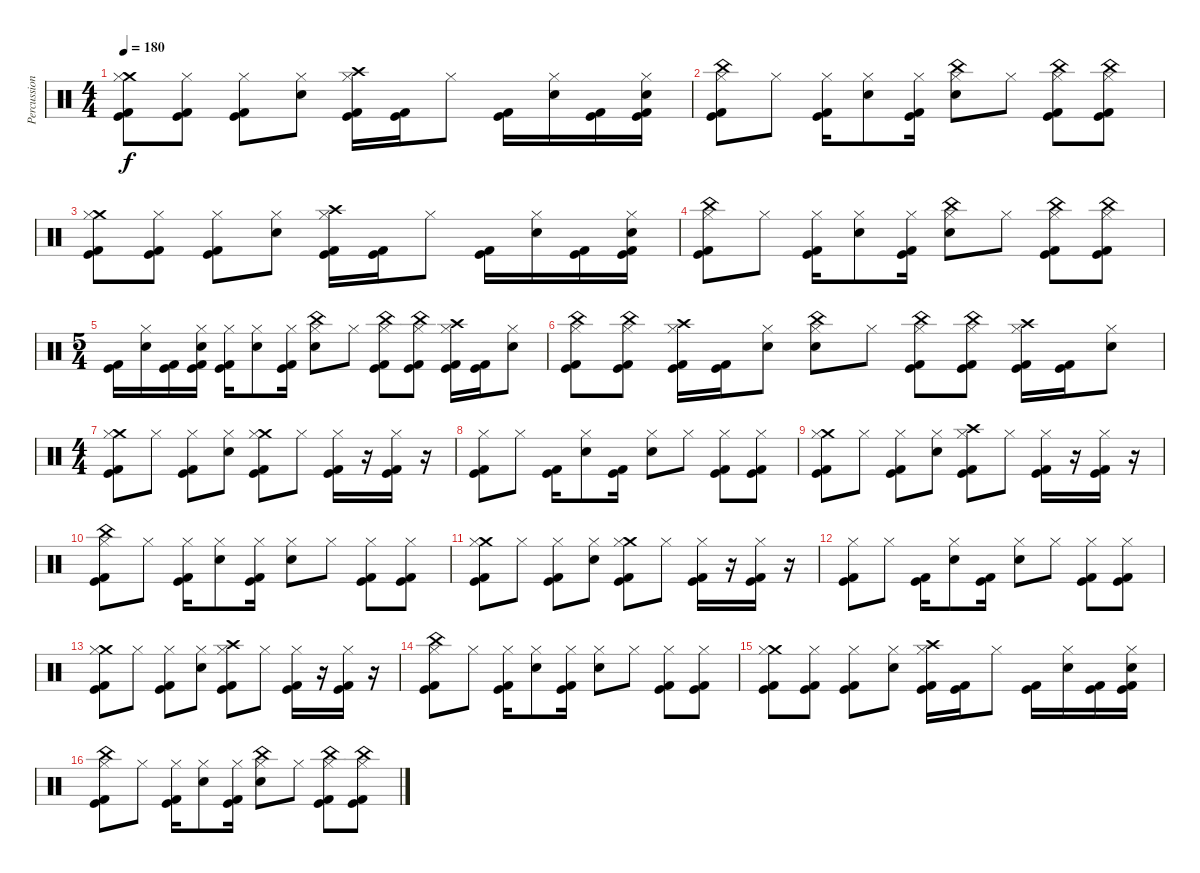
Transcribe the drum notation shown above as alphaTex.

\track ("Percussion" "Percussion") {instrument percussion}
\staff {score}
\articulation defaults
\ts (4 4)
\tempo 180
\clef neutral
\ks c
("Crash medium (hit)" "Hi-Hat (closed)" "Kick (hit)" "Kick (hit) 2").8{dy f} ("Hi-Hat (closed)" "Kick (hit)" "Kick (hit) 2").8 ("Hi-Hat (closed)" "Kick (hit)" "Kick (hit) 2").8 ("Hi-Hat (closed)" "Electric Snare (hit)").8 ("Crash high (hit)" "Hi-Hat (closed)" "Kick (hit)" "Kick (hit) 2").16 ("Kick (hit)" "Kick (hit) 2").16 "Hi-Hat (closed)".8 ("Kick (hit)" "Kick (hit) 2").16 ("Hi-Hat (closed)" "Electric Snare (hit)").16 ("Kick (hit)" "Kick (hit) 2").16 ("Hi-Hat (closed)" "Electric Snare (hit)" "Kick (hit)" "Kick (hit) 2").16 |
("China (hit)" "Hi-Hat (closed)" "Kick (hit)" "Kick (hit) 2").8 "Hi-Hat (closed)".8 ("Hi-Hat (closed)" "Kick (hit)" "Kick (hit) 2").16 ("Hi-Hat (closed)" "Electric Snare (hit)").8 ("Hi-Hat (closed)" "Kick (hit)" "Kick (hit) 2").16 ("China (hit)" "Hi-Hat (closed)" "Electric Snare (hit)").8 "Hi-Hat (closed)".8 ("China (hit)" "Hi-Hat (closed)" "Kick (hit)" "Kick (hit) 2").8 ("China (hit)" "Hi-Hat (closed)" "Kick (hit)" "Kick (hit) 2").8 |
("Crash medium (hit)" "Hi-Hat (closed)" "Kick (hit)" "Kick (hit) 2").8 ("Hi-Hat (closed)" "Kick (hit)" "Kick (hit) 2").8 ("Hi-Hat (closed)" "Kick (hit)" "Kick (hit) 2").8 ("Hi-Hat (closed)" "Electric Snare (hit)").8 ("Crash high (hit)" "Hi-Hat (closed)" "Kick (hit)" "Kick (hit) 2").16 ("Kick (hit)" "Kick (hit) 2").16 "Hi-Hat (closed)".8 ("Kick (hit)" "Kick (hit) 2").16 ("Hi-Hat (closed)" "Electric Snare (hit)").16 ("Kick (hit)" "Kick (hit) 2").16 ("Hi-Hat (closed)" "Electric Snare (hit)" "Kick (hit)" "Kick (hit) 2").16 |
("China (hit)" "Hi-Hat (closed)" "Kick (hit)" "Kick (hit) 2").8 "Hi-Hat (closed)".8 ("Hi-Hat (closed)" "Kick (hit)" "Kick (hit) 2").16 ("Hi-Hat (closed)" "Electric Snare (hit)").8 ("Hi-Hat (closed)" "Kick (hit)" "Kick (hit) 2").16 ("China (hit)" "Hi-Hat (closed)" "Electric Snare (hit)").8 "Hi-Hat (closed)".8 ("China (hit)" "Hi-Hat (closed)" "Kick (hit)" "Kick (hit) 2").8 ("China (hit)" "Hi-Hat (closed)" "Kick (hit)" "Kick (hit) 2").8 |
\ts (5 4)
("Kick (hit)" "Kick (hit) 2").16 ("Hi-Hat (closed)" "Electric Snare (hit)").16 ("Kick (hit)" "Kick (hit) 2").16 ("Hi-Hat (closed)" "Electric Snare (hit)" "Kick (hit)" "Kick (hit) 2").16 ("Hi-Hat (closed)" "Kick (hit)" "Kick (hit) 2").16 ("Hi-Hat (closed)" "Electric Snare (hit)").8 ("Hi-Hat (closed)" "Kick (hit)" "Kick (hit) 2").16 ("China (hit)" "Hi-Hat (closed)" "Electric Snare (hit)").8 "Hi-Hat (closed)".8 ("China (hit)" "Hi-Hat (closed)" "Kick (hit)" "Kick (hit) 2").8 ("China (hit)" "Hi-Hat (closed)" "Kick (hit)" "Kick (hit) 2").8 ("Crash high (hit)" "Hi-Hat (closed)" "Kick (hit)" "Kick (hit) 2").16 ("Kick (hit)" "Kick (hit) 2").16 ("Hi-Hat (closed)" "Electric Snare (hit)").8 |
("China (hit)" "Hi-Hat (closed)" "Kick (hit)" "Kick (hit) 2").8 ("China (hit)" "Hi-Hat (closed)" "Kick (hit)" "Kick (hit) 2").8 ("Crash high (hit)" "Hi-Hat (closed)" "Kick (hit)" "Kick (hit) 2").16 ("Kick (hit)" "Kick (hit) 2").16 ("Hi-Hat (closed)" "Electric Snare (hit)").8 ("China (hit)" "Hi-Hat (closed)" "Electric Snare (hit)").8 "Hi-Hat (closed)".8 ("China (hit)" "Hi-Hat (closed)" "Kick (hit)" "Kick (hit) 2").8 ("China (hit)" "Hi-Hat (closed)" "Kick (hit)" "Kick (hit) 2").8 ("Crash high (hit)" "Hi-Hat (closed)" "Kick (hit)" "Kick (hit) 2").16 ("Kick (hit)" "Kick (hit) 2").16 ("Hi-Hat (closed)" "Electric Snare (hit)").8 |
\ts (4 4)
("Crash medium (hit)" "Hi-Hat (closed)" "Kick (hit)" "Kick (hit) 2").8 "Hi-Hat (closed)".8 ("Hi-Hat (closed)" "Kick (hit)" "Kick (hit) 2").8 ("Hi-Hat (closed)" "Electric Snare (hit)").8 ("Crash medium (hit)" "Hi-Hat (closed)" "Kick (hit)" "Kick (hit) 2").8 "Hi-Hat (closed)".8 ("Hi-Hat (closed)" "Kick (hit)" "Kick (hit) 2").16 r.16 ("Hi-Hat (closed)" "Kick (hit)" "Kick (hit) 2").16 r.16 |
("Hi-Hat (closed)" "Kick (hit)" "Kick (hit) 2").8 "Hi-Hat (closed)".8 ("Kick (hit)" "Kick (hit) 2").16 ("Hi-Hat (closed)" "Electric Snare (hit)").8 ("Kick (hit)" "Kick (hit) 2").16 ("Hi-Hat (closed)" "Electric Snare (hit)").8 "Hi-Hat (closed)".8 ("Hi-Hat (closed)" "Kick (hit)" "Kick (hit) 2").8 ("Hi-Hat (closed)" "Kick (hit)" "Kick (hit) 2").8 |
("Crash medium (hit)" "Hi-Hat (closed)" "Kick (hit)" "Kick (hit) 2").8 "Hi-Hat (closed)".8 ("Hi-Hat (closed)" "Kick (hit)" "Kick (hit) 2").8 ("Hi-Hat (closed)" "Electric Snare (hit)").8 ("Crash high (hit)" "Hi-Hat (closed)" "Kick (hit)" "Kick (hit) 2").8 "Hi-Hat (closed)".8 ("Hi-Hat (closed)" "Kick (hit)" "Kick (hit) 2").16 r.16 ("Hi-Hat (closed)" "Kick (hit)" "Kick (hit) 2").16 r.16 |
("China (hit)" "Hi-Hat (closed)" "Kick (hit)" "Kick (hit) 2").8 "Hi-Hat (closed)".8 ("Hi-Hat (closed)" "Kick (hit)" "Kick (hit) 2").16 ("Hi-Hat (closed)" "Electric Snare (hit)").8 ("Hi-Hat (closed)" "Kick (hit)" "Kick (hit) 2").16 ("Hi-Hat (closed)" "Electric Snare (hit)").8 "Hi-Hat (closed)".8 ("Hi-Hat (closed)" "Kick (hit)" "Kick (hit) 2").8 ("Hi-Hat (closed)" "Kick (hit)" "Kick (hit) 2").8 |
("Crash medium (hit)" "Hi-Hat (closed)" "Kick (hit)" "Kick (hit) 2").8 "Hi-Hat (closed)".8 ("Hi-Hat (closed)" "Kick (hit)" "Kick (hit) 2").8 ("Hi-Hat (closed)" "Electric Snare (hit)").8 ("Crash medium (hit)" "Hi-Hat (closed)" "Kick (hit)" "Kick (hit) 2").8 "Hi-Hat (closed)".8 ("Hi-Hat (closed)" "Kick (hit)" "Kick (hit) 2").16 r.16 ("Hi-Hat (closed)" "Kick (hit)" "Kick (hit) 2").16 r.16 |
("Hi-Hat (closed)" "Kick (hit)" "Kick (hit) 2").8 "Hi-Hat (closed)".8 ("Kick (hit)" "Kick (hit) 2").16 ("Hi-Hat (closed)" "Electric Snare (hit)").8 ("Kick (hit)" "Kick (hit) 2").16 ("Hi-Hat (closed)" "Electric Snare (hit)").8 "Hi-Hat (closed)".8 ("Hi-Hat (closed)" "Kick (hit)" "Kick (hit) 2").8 ("Hi-Hat (closed)" "Kick (hit)" "Kick (hit) 2").8 |
("Crash medium (hit)" "Hi-Hat (closed)" "Kick (hit)" "Kick (hit) 2").8 "Hi-Hat (closed)".8 ("Hi-Hat (closed)" "Kick (hit)" "Kick (hit) 2").8 ("Hi-Hat (closed)" "Electric Snare (hit)").8 ("Crash high (hit)" "Hi-Hat (closed)" "Kick (hit)" "Kick (hit) 2").8 "Hi-Hat (closed)".8 ("Hi-Hat (closed)" "Kick (hit)" "Kick (hit) 2").16 r.16 ("Hi-Hat (closed)" "Kick (hit)" "Kick (hit) 2").16 r.16 |
("China (hit)" "Hi-Hat (closed)" "Kick (hit)" "Kick (hit) 2").8 "Hi-Hat (closed)".8 ("Hi-Hat (closed)" "Kick (hit)" "Kick (hit) 2").16 ("Hi-Hat (closed)" "Electric Snare (hit)").8 ("Hi-Hat (closed)" "Kick (hit)" "Kick (hit) 2").16 ("Hi-Hat (closed)" "Electric Snare (hit)").8 "Hi-Hat (closed)".8 ("Hi-Hat (closed)" "Kick (hit)" "Kick (hit) 2").8 ("Hi-Hat (closed)" "Kick (hit)" "Kick (hit) 2").8 |
("Crash medium (hit)" "Hi-Hat (closed)" "Kick (hit)" "Kick (hit) 2").8 ("Hi-Hat (closed)" "Kick (hit)" "Kick (hit) 2").8 ("Hi-Hat (closed)" "Kick (hit)" "Kick (hit) 2").8 ("Hi-Hat (closed)" "Electric Snare (hit)").8 ("Crash high (hit)" "Hi-Hat (closed)" "Kick (hit)" "Kick (hit) 2").16 ("Kick (hit)" "Kick (hit) 2").16 "Hi-Hat (closed)".8 ("Kick (hit)" "Kick (hit) 2").16 ("Hi-Hat (closed)" "Electric Snare (hit)").16 ("Kick (hit)" "Kick (hit) 2").16 ("Hi-Hat (closed)" "Electric Snare (hit)" "Kick (hit)" "Kick (hit) 2").16 |
("China (hit)" "Hi-Hat (closed)" "Kick (hit)" "Kick (hit) 2").8 "Hi-Hat (closed)".8 ("Hi-Hat (closed)" "Kick (hit)" "Kick (hit) 2").16 ("Hi-Hat (closed)" "Electric Snare (hit)").8 ("Hi-Hat (closed)" "Kick (hit)" "Kick (hit) 2").16 ("China (hit)" "Hi-Hat (closed)" "Electric Snare (hit)").8 "Hi-Hat (closed)".8 ("China (hit)" "Hi-Hat (closed)" "Kick (hit)" "Kick (hit) 2").8 ("China (hit)" "Hi-Hat (closed)" "Kick (hit)" "Kick (hit) 2").8
